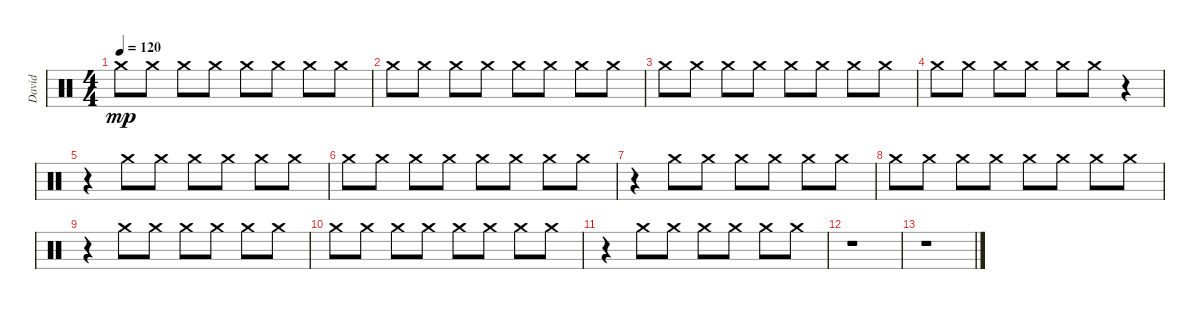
\track ("David" "David") {instrument percussion}
\staff {score}
\articulation defaults
\ts (4 4)
\tempo 120
\clef neutral
\ks c "Crash medium (hit)".8{dy mp} "Crash medium (hit)".8 "Crash medium (hit)".8 "Crash medium (hit)".8 "Crash medium (hit)".8 "Crash medium (hit)".8 "Crash medium (hit)".8 "Crash medium (hit)".8
|
"Crash medium (hit)".8 "Crash medium (hit)".8 "Crash medium (hit)".8 "Crash medium (hit)".8 "Crash medium (hit)".8 "Crash medium (hit)".8 "Crash medium (hit)".8 "Crash medium (hit)".8 |
"Crash medium (hit)".8 "Crash medium (hit)".8 "Crash medium (hit)".8 "Crash medium (hit)".8 "Crash medium (hit)".8 "Crash medium (hit)".8 "Crash medium (hit)".8 "Crash medium (hit)".8 |
"Crash medium (hit)".8 "Crash medium (hit)".8 "Crash medium (hit)".8 "Crash medium (hit)".8 "Crash medium (hit)".8 "Crash medium (hit)".8 r.4 |
r.4 "Crash medium (hit)".8 "Crash medium (hit)".8 "Crash medium (hit)".8 "Crash medium (hit)".8 "Crash medium (hit)".8 "Crash medium (hit)".8 |
"Crash medium (hit)".8 "Crash medium (hit)".8 "Crash medium (hit)".8 "Crash medium (hit)".8 "Crash medium (hit)".8 "Crash medium (hit)".8 "Crash medium (hit)".8 "Crash medium (hit)".8 |
r.4 "Crash medium (hit)".8 "Crash medium (hit)".8 "Crash medium (hit)".8 "Crash medium (hit)".8 "Crash medium (hit)".8 "Crash medium (hit)".8 |
"Crash medium (hit)".8 "Crash medium (hit)".8 "Crash medium (hit)".8 "Crash medium (hit)".8 "Crash medium (hit)".8 "Crash medium (hit)".8 "Crash medium (hit)".8 "Crash medium (hit)".8 |
r.4 "Crash medium (hit)".8 "Crash medium (hit)".8 "Crash medium (hit)".8 "Crash medium (hit)".8 "Crash medium (hit)".8 "Crash medium (hit)".8 |
"Crash medium (hit)".8 "Crash medium (hit)".8 "Crash medium (hit)".8 "Crash medium (hit)".8 "Crash medium (hit)".8 "Crash medium (hit)".8 "Crash medium (hit)".8 "Crash medium (hit)".8 |
r.4 "Crash medium (hit)".8 "Crash medium (hit)".8 "Crash medium (hit)".8 "Crash medium (hit)".8 "Crash medium (hit)".8 "Crash medium (hit)".8 |
r.1 |
r.1
